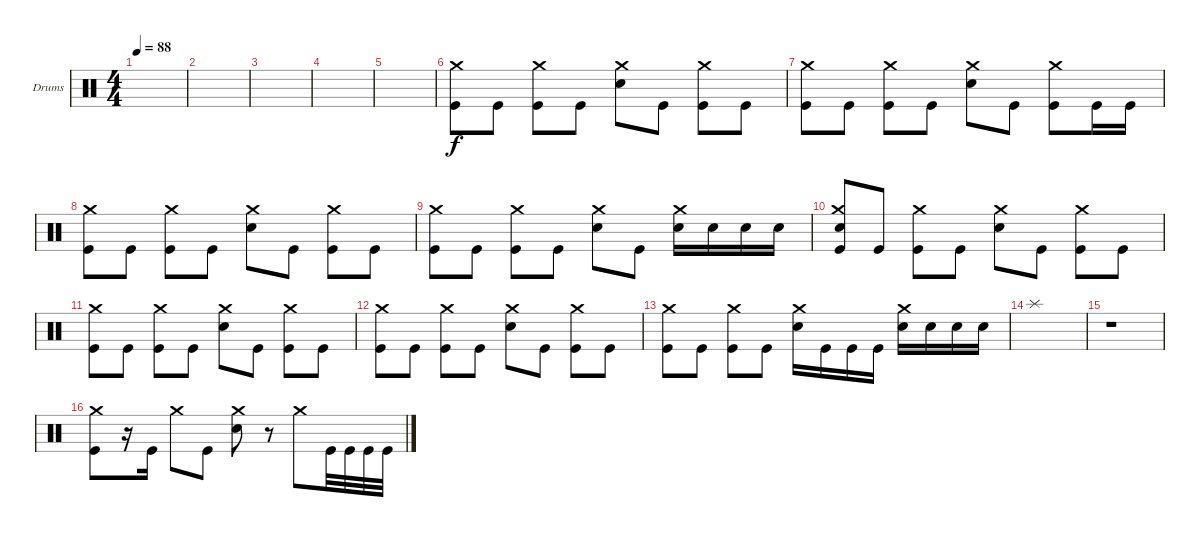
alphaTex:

\defaultSystemsLayout 4
\bracketExtendMode groupsimilarinstruments
\firstSystemTrackNameOrientation horizontal
\otherSystemsTrackNameOrientation horizontal
\track ("Drumkit" "Drums") {instrument percussion}
\staff {score}
\articulation defaults
\ts (4 4)
\tempo 88
\clef neutral
\ks c
|
|
|
|
|
("Kick (hit)" "Crash medium (hit)").8 "Kick (hit)".8 ("Kick (hit)" "Crash medium (hit)").8 "Kick (hit)".8 ("Snare (hit) 2" "Crash medium (hit)").8 "Kick (hit)".8 ("Kick (hit)" "Crash medium (hit)").8 "Kick (hit)".8 |
("Kick (hit)" "Crash medium (hit)").8 "Kick (hit)".8 ("Kick (hit)" "Crash medium (hit)").8 "Kick (hit)".8 ("Snare (hit) 2" "Crash medium (hit)").8 "Kick (hit)".8 ("Kick (hit)" "Crash medium (hit)").8 "Kick (hit)".16 "Kick (hit)".16 |
("Kick (hit)" "Crash medium (hit)").8 "Kick (hit)".8 ("Kick (hit)" "Crash medium (hit)").8 "Kick (hit)".8 ("Snare (hit) 2" "Crash medium (hit)").8 "Kick (hit)".8 ("Kick (hit)" "Crash medium (hit)").8 "Kick (hit)".8 |
("Kick (hit)" "Crash medium (hit)").8 "Kick (hit)".8 ("Kick (hit)" "Crash medium (hit)").8 "Kick (hit)".8 ("Snare (hit) 2" "Crash medium (hit)").8 "Kick (hit)".8 ("Crash medium (hit)" "Snare (hit) 2").16 "Snare (hit) 2".16 "Snare (hit) 2".16 "Snare (hit) 2".16 |
("Kick (hit)" "Crash medium (hit)" "Snare (hit) 2").8 "Kick (hit)".8 ("Kick (hit)" "Crash medium (hit)").8 "Kick (hit)".8 ("Snare (hit) 2" "Crash medium (hit)").8 "Kick (hit)".8 ("Kick (hit)" "Crash medium (hit)").8 "Kick (hit)".8 |
("Kick (hit)" "Crash medium (hit)").8 "Kick (hit)".8 ("Kick (hit)" "Crash medium (hit)").8 "Kick (hit)".8 ("Snare (hit) 2" "Crash medium (hit)").8 "Kick (hit)".8 ("Kick (hit)" "Crash medium (hit)").8 "Kick (hit)".8 |
("Kick (hit)" "Crash medium (hit)").8 "Kick (hit)".8 ("Kick (hit)" "Crash medium (hit)").8 "Kick (hit)".8 ("Snare (hit) 2" "Crash medium (hit)").8 "Kick (hit)".8 ("Kick (hit)" "Crash medium (hit)").8 "Kick (hit)".8 |
("Kick (hit)" "Crash medium (hit)").8 "Kick (hit)".8 ("Kick (hit)" "Crash medium (hit)").8 "Kick (hit)".8 ("Snare (hit) 2" "Crash medium (hit)").16 "Kick (hit)".16 "Kick (hit)".16 "Kick (hit)".16 ("Crash medium (hit)" "Snare (hit) 2").16 "Snare (hit) 2".16 "Snare (hit) 2".16 "Snare (hit) 2".16 |
"Splash (hit)".1 |
r.1 |
("Kick (hit)" "Crash medium (hit)").8 r.16 "Kick (hit)".16 "Crash medium (hit)".8 "Kick (hit)".8 ("Snare (hit) 2" "Crash medium (hit)").8 r.8 "Crash medium (hit)".8 "Kick (hit)".32 "Kick (hit)".32 "Kick (hit)".32 "Kick (hit)".32
